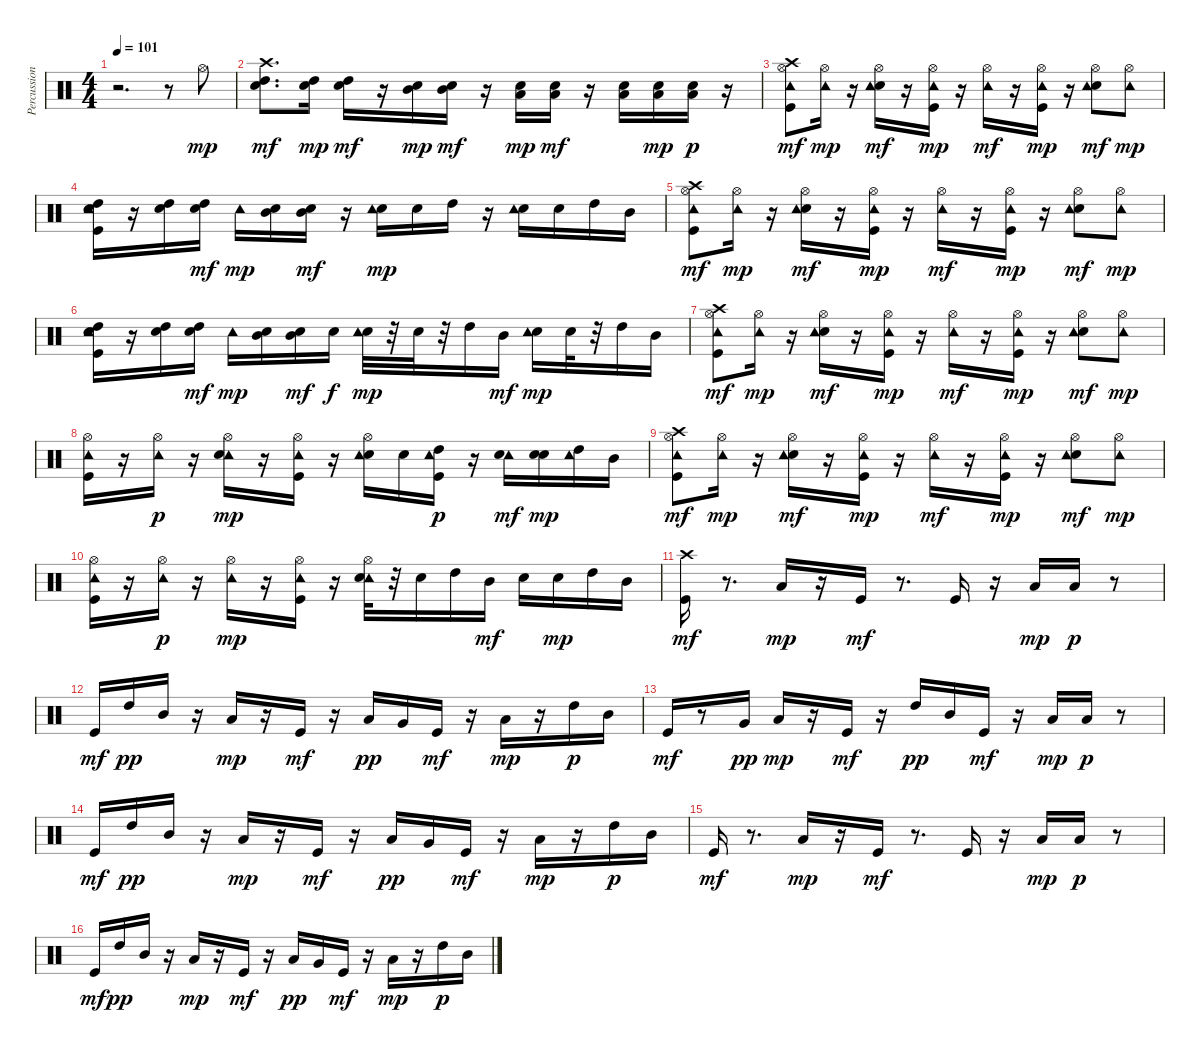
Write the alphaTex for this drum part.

\track ("Percussion" "Percussion") {instrument percussion}
\staff {score}
\articulation defaults
\ts (4 4)
\tempo 101
\clef neutral
\ks c
r.2{d dy mf} r.8 "Hi-Hat (open)".8{dy mp} |
("Electric Snare (hit)" "Crash high (hit)" "High Tom (hit)").8{d dy mf} ("Electric Snare (hit)" "High Tom (hit)").16{dy mp} ("Electric Snare (hit)" "High Tom (hit)").16{dy mf} r.16 ("Electric Snare (hit)" "Mid Tom (hit)").16{dy mp} ("Mid Tom (hit)" "Electric Snare (hit)").16{dy mf} r.16 ("Electric Snare (hit)" "Low Tom (hit)").16{dy mp} ("Electric Snare (hit)" "Low Tom (hit)").16{dy mf} r.16 ("Electric Snare (hit)" "Low Tom (hit)").16 ("Electric Snare (hit)" "Low Tom (hit)").16{dy mp} ("Electric Snare (hit)" "Low Tom (hit)").16{dy p} r.16 |
("Crash high (hit)" "Kick (hit)" "Tambourine (hit)" "Hi-Hat (open)").8{dy mf} ("Tambourine (hit)" "Hi-Hat (open)").16{dy mp} r.16 ("Electric Snare (hit)" "Tambourine (hit)" "Hi-Hat (open)").16{dy mf} r.16 ("Kick (hit)" "Tambourine (hit)" "Hi-Hat (open)").16{dy mp} r.16 ("Tambourine (hit)" "Hi-Hat (open)").16{dy mf} r.16 ("Kick (hit)" "Tambourine (hit)" "Hi-Hat (open)").16{dy mp} r.16 ("Electric Snare (hit)" "Tambourine (hit)" "Hi-Hat (open)").8{dy mf} ("Tambourine (hit)" "Hi-Hat (open)").8{dy mp} |
("Electric Snare (hit)" "Kick (hit)" "High Tom (hit)" "Tambourine (hit)").16 r.16 ("Electric Snare (hit)" "High Tom (hit)").16 ("Electric Snare (hit)" "High Tom (hit)").16{dy mf} "Tambourine (hit)".16{dy mp} ("Electric Snare (hit)" "Mid Tom (hit)").16 ("Electric Snare (hit)" "Mid Tom (hit)").16{dy mf} r.16 ("Electric Snare (hit)" "Tambourine (hit)").16{dy mp} "Electric Snare (hit)".16 "High Tom (hit)".16 r.16 ("Electric Snare (hit)" "Tambourine (hit)").16 "Electric Snare (hit)".16 "High Tom (hit)".16 "Mid Tom (hit)".16 |
("Crash high (hit)" "Kick (hit)" "Tambourine (hit)" "Hi-Hat (open)").8{dy mf} ("Tambourine (hit)" "Hi-Hat (open)").16{dy mp} r.16 ("Electric Snare (hit)" "Tambourine (hit)" "Hi-Hat (open)").16{dy mf} r.16 ("Kick (hit)" "Tambourine (hit)" "Hi-Hat (open)").16{dy mp} r.16 ("Tambourine (hit)" "Hi-Hat (open)").16{dy mf} r.16 ("Kick (hit)" "Tambourine (hit)" "Hi-Hat (open)").16{dy mp} r.16 ("Electric Snare (hit)" "Tambourine (hit)" "Hi-Hat (open)").8{dy mf} ("Tambourine (hit)" "Hi-Hat (open)").8{dy mp} |
("Electric Snare (hit)" "Kick (hit)" "High Tom (hit)" "Tambourine (hit)").16 r.16 ("Electric Snare (hit)" "High Tom (hit)").16 ("Electric Snare (hit)" "High Tom (hit)").16{dy mf} "Tambourine (hit)".16{dy mp} ("Electric Snare (hit)" "Mid Tom (hit)").16 ("Electric Snare (hit)" "Mid Tom (hit)").16{dy mf} "Snare (hit) 2".16{dy f} ("Electric Snare (hit)" "Tambourine (hit)").32{dy mp} r.32 "Electric Snare (hit)".32 r.32 "High Tom (hit)".16 "Mid Tom (hit)".16{dy mf} ("Electric Snare (hit)" "Tambourine (hit)").16{dy mp} "Electric Snare (hit)".32 r.32 "High Tom (hit)".16 "Mid Tom (hit)".16 |
("Crash high (hit)" "Kick (hit)" "Tambourine (hit)" "Hi-Hat (open)").8{dy mf} ("Tambourine (hit)" "Hi-Hat (open)").16{dy mp} r.16 ("Electric Snare (hit)" "Tambourine (hit)" "Hi-Hat (open)").16{dy mf} r.16 ("Kick (hit)" "Tambourine (hit)" "Hi-Hat (open)").16{dy mp} r.16 ("Tambourine (hit)" "Hi-Hat (open)").16{dy mf} r.16 ("Kick (hit)" "Tambourine (hit)" "Hi-Hat (open)").16{dy mp} r.16 ("Electric Snare (hit)" "Tambourine (hit)" "Hi-Hat (open)").8{dy mf} ("Tambourine (hit)" "Hi-Hat (open)").8{dy mp} |
("Kick (hit)" "Tambourine (hit)" "Hi-Hat (open)").16 r.16 ("Hi-Hat (open)" "Tambourine (hit)").16{dy p} r.16 ("Tambourine (hit)" "Hi-Hat (open)" "Electric Snare (hit)").16{dy mp} r.16 ("Kick (hit)" "Hi-Hat (open)" "Tambourine (hit)").16 r.16 ("Electric Snare (hit)" "Tambourine (hit)" "Hi-Hat (open)").16 "Electric Snare (hit)".16 ("High Tom (hit)" "Kick (hit)" "Tambourine (hit)").16{dy p} r.16 ("Tambourine (hit)" "Electric Snare (hit)").16{dy mf} ("Electric Snare (hit)" "Snare (hit) 2").16{dy mp} ("High Tom (hit)" "Tambourine (hit)").16 "Mid Tom (hit)".16 |
("Crash high (hit)" "Kick (hit)" "Tambourine (hit)" "Hi-Hat (open)").8{dy mf} ("Tambourine (hit)" "Hi-Hat (open)").16{dy mp} r.16 ("Electric Snare (hit)" "Tambourine (hit)" "Hi-Hat (open)").16{dy mf} r.16 ("Kick (hit)" "Tambourine (hit)" "Hi-Hat (open)").16{dy mp} r.16 ("Tambourine (hit)" "Hi-Hat (open)").16{dy mf} r.16 ("Kick (hit)" "Tambourine (hit)" "Hi-Hat (open)").16{dy mp} r.16 ("Electric Snare (hit)" "Tambourine (hit)" "Hi-Hat (open)").8{dy mf} ("Tambourine (hit)" "Hi-Hat (open)").8{dy mp} |
("Kick (hit)" "Tambourine (hit)" "Hi-Hat (open)").16 r.16 ("Hi-Hat (open)" "Tambourine (hit)").16{dy p} r.16 ("Tambourine (hit)" "Hi-Hat (open)").16{dy mp} r.16 ("Kick (hit)" "Hi-Hat (open)" "Tambourine (hit)").16 r.16 ("Tambourine (hit)" "Electric Snare (hit)" "Hi-Hat (open)").32 r.32 "Electric Snare (hit)".16 "High Tom (hit)".16 "Mid Tom (hit)".16{dy mf} "Electric Snare (hit)".16 "Electric Snare (hit)".16{dy mp} "High Tom (hit)".16 "Mid Tom (hit)".16 |
("Crash high (hit)" "Kick (hit)").16{dy mf volume 9} r.8{d} "Low Floor Tom (hit)".16{dy mp} r.16 "Kick (hit)".16{dy mf} r.8{d} "Kick (hit)".16 r.16 "Low Floor Tom (hit)".16{dy mp} "Low Floor Tom (hit)".16{dy p} r.8 |
"Kick (hit)".16{dy mf} "High Tom (hit)".16{dy pp} "Mid Tom (hit)".16 r.16 "Low Floor Tom (hit)".16{dy mp} r.16 "Kick (hit)".16{dy mf} r.16 "Low Tom (hit)".16{dy pp} "Very Low Tom (hit)".16 "Kick (hit)".16{dy mf} r.16 "Low Floor Tom (hit)".16{dy mp} r.16 "High Tom (hit)".16{dy p} "Mid Tom (hit)".16 |
"Kick (hit)".16{dy mf} r.8 "Very Low Tom (hit)".16{dy pp} "Low Floor Tom (hit)".16{dy mp} r.16 "Kick (hit)".16{dy mf} r.16 "High Tom (hit)".16{dy pp} "Mid Tom (hit)".16 "Kick (hit)".16{dy mf} r.16 "Low Floor Tom (hit)".16{dy mp} "Low Floor Tom (hit)".16{dy p} r.8 |
"Kick (hit)".16{dy mf} "High Tom (hit)".16{dy pp} "Mid Tom (hit)".16 r.16 "Low Floor Tom (hit)".16{dy mp} r.16 "Kick (hit)".16{dy mf} r.16 "Low Tom (hit)".16{dy pp} "Very Low Tom (hit)".16 "Kick (hit)".16{dy mf} r.16 "Low Floor Tom (hit)".16{dy mp} r.16 "High Tom (hit)".16{dy p} "Mid Tom (hit)".16 |
"Kick (hit)".16{dy mf} r.8{d} "Low Floor Tom (hit)".16{dy mp} r.16 "Kick (hit)".16{dy mf} r.8{d} "Kick (hit)".16 r.16 "Low Floor Tom (hit)".16{dy mp} "Low Floor Tom (hit)".16{dy p} r.8 |
"Kick (hit)".16{dy mf} "High Tom (hit)".16{dy pp} "Mid Tom (hit)".16 r.16 "Low Floor Tom (hit)".16{dy mp} r.16 "Kick (hit)".16{dy mf} r.16 "Low Tom (hit)".16{dy pp} "Very Low Tom (hit)".16 "Kick (hit)".16{dy mf} r.16 "Low Floor Tom (hit)".16{dy mp} r.16 "High Tom (hit)".16{dy p} "Mid Tom (hit)".16
